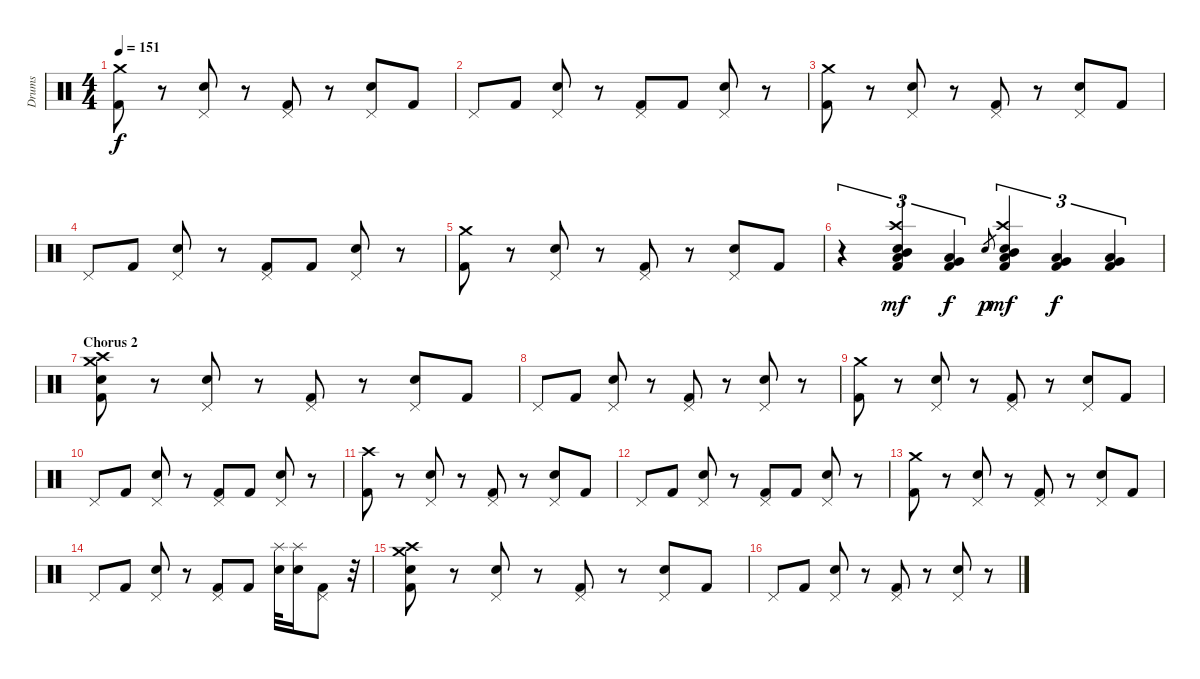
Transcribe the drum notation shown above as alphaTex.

\track ("Drums" "Drums") {instrument percussion}
\staff {score}
\articulation defaults
\ts (4 4)
\tempo 151
\clef neutral
\ks c
("Kick (hit) 2" "Crash medium (hit)").8{dy f} r.8 ("Pedal Hi-Hat (hit)" "Electric Snare (hit)").8 r.8 ("Pedal Hi-Hat (hit)" "Kick (hit) 2").8 r.8 ("Pedal Hi-Hat (hit)" "Electric Snare (hit)").8 "Kick (hit) 2".8 |
"Pedal Hi-Hat (hit)".8 "Kick (hit) 2".8 ("Pedal Hi-Hat (hit)" "Electric Snare (hit)").8 r.8 ("Pedal Hi-Hat (hit)" "Kick (hit) 2").8 "Kick (hit) 2".8 ("Pedal Hi-Hat (hit)" "Electric Snare (hit)").8 r.8 |
("Kick (hit) 2" "Crash medium (hit)").8 r.8 ("Pedal Hi-Hat (hit)" "Electric Snare (hit)").8 r.8 ("Pedal Hi-Hat (hit)" "Kick (hit) 2").8 r.8 ("Pedal Hi-Hat (hit)" "Electric Snare (hit)").8 "Kick (hit) 2".8 |
"Pedal Hi-Hat (hit)".8 "Kick (hit) 2".8 ("Pedal Hi-Hat (hit)" "Electric Snare (hit)").8 r.8 ("Pedal Hi-Hat (hit)" "Kick (hit) 2").8 "Kick (hit) 2".8 ("Pedal Hi-Hat (hit)" "Electric Snare (hit)").8 r.8 |
("Kick (hit) 2" "Crash medium (hit)").8 r.8 ("Pedal Hi-Hat (hit)" "Electric Snare (hit)").8 r.8 ("Pedal Hi-Hat (hit)" "Kick (hit) 2").8 r.8 ("Pedal Hi-Hat (hit)" "Electric Snare (hit)").8 "Kick (hit) 2".8 |
r.4{tu (3 2) volume 15} ("Mid Tom (hit)" "Crash high (hit)" "Kick (hit) 2" "Electric Snare (hit)" "Low Tom (hit)").4{tu (3 2) dy mf} ("Low Tom (hit)" "Kick (hit) 2" "Very Low Tom (hit)").4{tu (3 2) dy f} "Electric Snare (hit)".8{gr dy p} ("Mid Tom (hit)" "Crash high (hit)" "Kick (hit) 2" "Electric Snare (hit)" "Low Tom (hit)").4{tu (3 2) dy mf} ("Low Tom (hit)" "Kick (hit) 2" "Very Low Tom (hit)").4{tu (3 2) dy f} ("Very Low Tom (hit)" "Kick (hit) 2" "Low Floor Tom (hit)").4{tu (3 2)} |
\section ("" "Chorus 2")
("Kick (hit) 2" "Crash medium (hit)" "Electric Snare (hit)" "Crash high (hit)").8{volume 13} r.8 ("Pedal Hi-Hat (hit)" "Electric Snare (hit)").8 r.8 ("Pedal Hi-Hat (hit)" "Kick (hit) 2").8 r.8 ("Pedal Hi-Hat (hit)" "Electric Snare (hit)").8 "Kick (hit) 2".8 |
"Pedal Hi-Hat (hit)".8 "Kick (hit) 2".8 ("Pedal Hi-Hat (hit)" "Electric Snare (hit)").8 r.8 ("Pedal Hi-Hat (hit)" "Kick (hit) 2").8 r.8 ("Pedal Hi-Hat (hit)" "Electric Snare (hit)").8 r.8 |
("Kick (hit) 2" "Crash medium (hit)").8 r.8 ("Pedal Hi-Hat (hit)" "Electric Snare (hit)").8 r.8 ("Pedal Hi-Hat (hit)" "Kick (hit) 2").8 r.8 ("Pedal Hi-Hat (hit)" "Electric Snare (hit)").8 "Kick (hit) 2".8 |
"Pedal Hi-Hat (hit)".8 "Kick (hit) 2".8 ("Pedal Hi-Hat (hit)" "Electric Snare (hit)").8 r.8 ("Pedal Hi-Hat (hit)" "Kick (hit) 2").8 "Kick (hit) 2".8 ("Pedal Hi-Hat (hit)" "Electric Snare (hit)").8 r.8 |
("Kick (hit) 2" "Crash high (hit)").8 r.8 ("Pedal Hi-Hat (hit)" "Electric Snare (hit)").8 r.8 ("Pedal Hi-Hat (hit)" "Kick (hit) 2").8 r.8 ("Pedal Hi-Hat (hit)" "Electric Snare (hit)").8 "Kick (hit) 2".8 |
"Pedal Hi-Hat (hit)".8 "Kick (hit) 2".8 ("Pedal Hi-Hat (hit)" "Electric Snare (hit)").8 r.8 ("Pedal Hi-Hat (hit)" "Kick (hit) 2").8 "Kick (hit) 2".8 ("Pedal Hi-Hat (hit)" "Electric Snare (hit)").8 r.8 |
("Kick (hit) 2" "Crash medium (hit)").8 r.8 ("Pedal Hi-Hat (hit)" "Electric Snare (hit)").8 r.8 ("Pedal Hi-Hat (hit)" "Kick (hit) 2").8 r.8 ("Pedal Hi-Hat (hit)" "Electric Snare (hit)").8 "Kick (hit) 2".8 |
"Pedal Hi-Hat (hit)".8 "Kick (hit) 2".8 ("Pedal Hi-Hat (hit)" "Electric Snare (hit)").8 r.8 ("Pedal Hi-Hat (hit)" "Kick (hit) 2").8 "Kick (hit) 2".8 ("Splash (hit)" "Electric Snare (hit)").32 ("Splash (hit)" "Electric Snare (hit)").16 ("Pedal Hi-Hat (hit)" "Kick (hit) 2").8 r.32 |
("Kick (hit) 2" "Crash medium (hit)" "Electric Snare (hit)" "Crash high (hit)").8 r.8 ("Pedal Hi-Hat (hit)" "Electric Snare (hit)").8 r.8 ("Pedal Hi-Hat (hit)" "Kick (hit) 2").8 r.8 ("Pedal Hi-Hat (hit)" "Electric Snare (hit)").8 "Kick (hit) 2".8 |
"Pedal Hi-Hat (hit)".8 "Kick (hit) 2".8 ("Pedal Hi-Hat (hit)" "Electric Snare (hit)").8 r.8 ("Pedal Hi-Hat (hit)" "Kick (hit) 2").8 r.8 ("Pedal Hi-Hat (hit)" "Electric Snare (hit)").8 r.8
